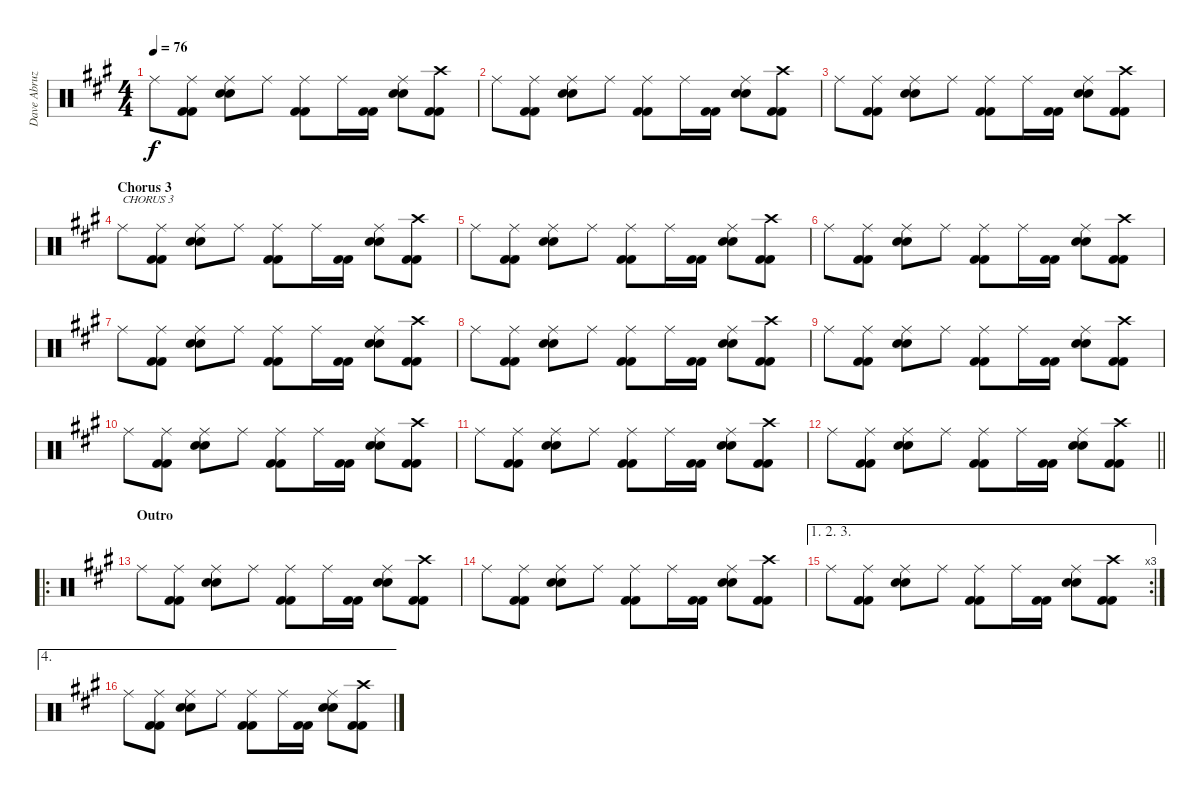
\track ("Dave Abruzzese" "Dave Abruz") {instrument percussion}
\staff {score}
\articulation defaults
\ts (4 4)
\tempo 76
\clef neutral
\ks a "Ride (middle)".8{dy f}
("Kick (hit) 2" "Kick (hit) 2" "Ride (middle)").8 ("Electric Snare (hit)" "Electric Snare (hit)" "Ride (middle)").8 "Ride (middle)".8 ("Kick (hit) 2" "Kick (hit) 2" "Ride (middle)").8 "Ride (middle)".16 ("Kick (hit) 2" "Kick (hit) 2").16 ("Electric Snare (hit)" "Electric Snare (hit)" "Ride (middle)").8 ("Kick (hit) 2" "Kick (hit) 2" "Crash high (hit)").8 |
"Ride (middle)".8 ("Kick (hit) 2" "Kick (hit) 2" "Ride (middle)").8 ("Electric Snare (hit)" "Electric Snare (hit)" "Ride (middle)").8 "Ride (middle)".8 ("Kick (hit) 2" "Kick (hit) 2" "Ride (middle)").8 "Ride (middle)".16 ("Kick (hit) 2" "Kick (hit) 2").16 ("Electric Snare (hit)" "Electric Snare (hit)" "Ride (middle)").8 ("Kick (hit) 2" "Kick (hit) 2" "Crash high (hit)").8 |
"Ride (middle)".8 ("Kick (hit) 2" "Kick (hit) 2" "Ride (middle)").8 ("Electric Snare (hit)" "Electric Snare (hit)" "Ride (middle)").8 "Ride (middle)".8 ("Kick (hit) 2" "Kick (hit) 2" "Ride (middle)").8 "Ride (middle)".16 ("Kick (hit) 2" "Kick (hit) 2").16 ("Electric Snare (hit)" "Electric Snare (hit)" "Ride (middle)").8 ("Kick (hit) 2" "Kick (hit) 2" "Crash high (hit)").8 |
\section ("" "Chorus 3")
"Ride (middle)".8{txt "CHORUS 3"} ("Kick (hit) 2" "Kick (hit) 2" "Ride (middle)").8 ("Electric Snare (hit)" "Electric Snare (hit)" "Ride (middle)").8 "Ride (middle)".8 ("Kick (hit) 2" "Kick (hit) 2" "Ride (middle)").8 "Ride (middle)".16 ("Kick (hit) 2" "Kick (hit) 2").16 ("Electric Snare (hit)" "Electric Snare (hit)" "Ride (middle)").8 ("Kick (hit) 2" "Kick (hit) 2" "Crash high (hit)").8 |
"Ride (middle)".8 ("Kick (hit) 2" "Kick (hit) 2" "Ride (middle)").8 ("Electric Snare (hit)" "Electric Snare (hit)" "Ride (middle)").8 "Ride (middle)".8 ("Kick (hit) 2" "Kick (hit) 2" "Ride (middle)").8 "Ride (middle)".16 ("Kick (hit) 2" "Kick (hit) 2").16 ("Electric Snare (hit)" "Electric Snare (hit)" "Ride (middle)").8 ("Kick (hit) 2" "Kick (hit) 2" "Crash high (hit)").8 |
"Ride (middle)".8 ("Kick (hit) 2" "Kick (hit) 2" "Ride (middle)").8 ("Electric Snare (hit)" "Electric Snare (hit)" "Ride (middle)").8 "Ride (middle)".8 ("Kick (hit) 2" "Kick (hit) 2" "Ride (middle)").8 "Ride (middle)".16 ("Kick (hit) 2" "Kick (hit) 2").16 ("Electric Snare (hit)" "Electric Snare (hit)" "Ride (middle)").8 ("Kick (hit) 2" "Kick (hit) 2" "Crash high (hit)").8 |
"Ride (middle)".8 ("Kick (hit) 2" "Kick (hit) 2" "Ride (middle)").8 ("Electric Snare (hit)" "Electric Snare (hit)" "Ride (middle)").8 "Ride (middle)".8 ("Kick (hit) 2" "Kick (hit) 2" "Ride (middle)").8 "Ride (middle)".16 ("Kick (hit) 2" "Kick (hit) 2").16 ("Electric Snare (hit)" "Electric Snare (hit)" "Ride (middle)").8 ("Kick (hit) 2" "Kick (hit) 2" "Crash high (hit)").8 |
"Ride (middle)".8 ("Kick (hit) 2" "Kick (hit) 2" "Ride (middle)").8 ("Electric Snare (hit)" "Electric Snare (hit)" "Ride (middle)").8 "Ride (middle)".8 ("Kick (hit) 2" "Kick (hit) 2" "Ride (middle)").8 "Ride (middle)".16 ("Kick (hit) 2" "Kick (hit) 2").16 ("Electric Snare (hit)" "Electric Snare (hit)" "Ride (middle)").8 ("Kick (hit) 2" "Kick (hit) 2" "Crash high (hit)").8 |
"Ride (middle)".8 ("Kick (hit) 2" "Kick (hit) 2" "Ride (middle)").8 ("Electric Snare (hit)" "Electric Snare (hit)" "Ride (middle)").8 "Ride (middle)".8 ("Kick (hit) 2" "Kick (hit) 2" "Ride (middle)").8 "Ride (middle)".16 ("Kick (hit) 2" "Kick (hit) 2").16 ("Electric Snare (hit)" "Electric Snare (hit)" "Ride (middle)").8 ("Kick (hit) 2" "Kick (hit) 2" "Crash high (hit)").8 |
"Ride (middle)".8 ("Kick (hit) 2" "Kick (hit) 2" "Ride (middle)").8 ("Electric Snare (hit)" "Electric Snare (hit)" "Ride (middle)").8 "Ride (middle)".8 ("Kick (hit) 2" "Kick (hit) 2" "Ride (middle)").8 "Ride (middle)".16 ("Kick (hit) 2" "Kick (hit) 2").16 ("Electric Snare (hit)" "Electric Snare (hit)" "Ride (middle)").8 ("Kick (hit) 2" "Kick (hit) 2" "Crash high (hit)").8 |
"Ride (middle)".8 ("Kick (hit) 2" "Kick (hit) 2" "Ride (middle)").8 ("Electric Snare (hit)" "Electric Snare (hit)" "Ride (middle)").8 "Ride (middle)".8 ("Kick (hit) 2" "Kick (hit) 2" "Ride (middle)").8 "Ride (middle)".16 ("Kick (hit) 2" "Kick (hit) 2").16 ("Electric Snare (hit)" "Electric Snare (hit)" "Ride (middle)").8 ("Kick (hit) 2" "Kick (hit) 2" "Crash high (hit)").8 |
\barLineRight lightlight "Ride (middle)".8
("Kick (hit) 2" "Kick (hit) 2" "Ride (middle)").8 ("Electric Snare (hit)" "Electric Snare (hit)" "Ride (middle)").8 "Ride (middle)".8 ("Kick (hit) 2" "Kick (hit) 2" "Ride (middle)").8 "Ride (middle)".16 ("Kick (hit) 2" "Kick (hit) 2").16 ("Electric Snare (hit)" "Electric Snare (hit)" "Ride (middle)").8 ("Kick (hit) 2" "Kick (hit) 2" "Crash high (hit)").8 |
\ro
\section ("" "Outro")
"Ride (middle)".8 ("Kick (hit) 2" "Kick (hit) 2" "Ride (middle)").8 ("Electric Snare (hit)" "Electric Snare (hit)" "Ride (middle)").8 "Ride (middle)".8 ("Kick (hit) 2" "Kick (hit) 2" "Ride (middle)").8 "Ride (middle)".16 ("Kick (hit) 2" "Kick (hit) 2").16 ("Electric Snare (hit)" "Electric Snare (hit)" "Ride (middle)").8 ("Kick (hit) 2" "Kick (hit) 2" "Crash high (hit)").8 |
"Ride (middle)".8 ("Kick (hit) 2" "Kick (hit) 2" "Ride (middle)").8 ("Electric Snare (hit)" "Electric Snare (hit)" "Ride (middle)").8 "Ride (middle)".8 ("Kick (hit) 2" "Kick (hit) 2" "Ride (middle)").8 "Ride (middle)".16 ("Kick (hit) 2" "Kick (hit) 2").16 ("Electric Snare (hit)" "Electric Snare (hit)" "Ride (middle)").8 ("Kick (hit) 2" "Kick (hit) 2" "Crash high (hit)").8 |
\ae (1 2 3)
\rc 3 "Ride (middle)".8
("Kick (hit) 2" "Kick (hit) 2" "Ride (middle)").8 ("Electric Snare (hit)" "Electric Snare (hit)" "Ride (middle)").8 "Ride (middle)".8 ("Kick (hit) 2" "Kick (hit) 2" "Ride (middle)").8 "Ride (middle)".16 ("Kick (hit) 2" "Kick (hit) 2").16 ("Electric Snare (hit)" "Electric Snare (hit)" "Ride (middle)").8 ("Kick (hit) 2" "Kick (hit) 2" "Crash high (hit)").8 |
\ae 4 "Ride (middle)".8
("Kick (hit) 2" "Kick (hit) 2" "Ride (middle)").8 ("Electric Snare (hit)" "Electric Snare (hit)" "Ride (middle)").8 "Ride (middle)".8 ("Kick (hit) 2" "Kick (hit) 2" "Ride (middle)").8 "Ride (middle)".16 ("Kick (hit) 2" "Kick (hit) 2").16 ("Electric Snare (hit)" "Electric Snare (hit)" "Ride (middle)").8 ("Kick (hit) 2" "Kick (hit) 2" "Crash high (hit)").8
